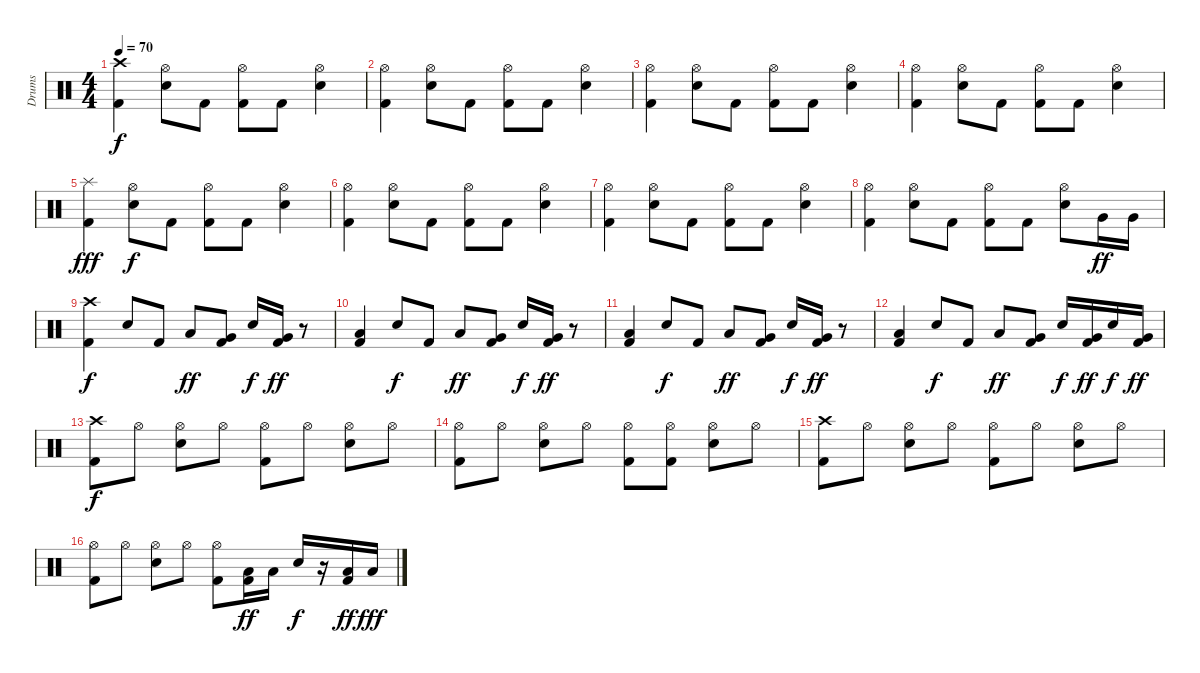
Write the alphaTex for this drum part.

\track ("Drums" "Drums") {instrument percussion}
\staff {score}
\articulation defaults
\ts (4 4)
\tempo 70
\clef neutral
\ks c
("Kick (hit) 2" "Crash high (hit)").4{dy f} ("Electric Snare (hit)" "Hi-Hat (open)").8 "Kick (hit) 2".8 ("Kick (hit) 2" "Hi-Hat (open)").8 "Kick (hit) 2".8 ("Electric Snare (hit)" "Hi-Hat (open)").4 |
("Kick (hit) 2" "Hi-Hat (open)").4 ("Electric Snare (hit)" "Hi-Hat (open)").8 "Kick (hit) 2".8 ("Kick (hit) 2" "Hi-Hat (open)").8 "Kick (hit) 2".8 ("Electric Snare (hit)" "Hi-Hat (open)").4 |
("Kick (hit) 2" "Hi-Hat (open)").4 ("Electric Snare (hit)" "Hi-Hat (open)").8 "Kick (hit) 2".8 ("Kick (hit) 2" "Hi-Hat (open)").8 "Kick (hit) 2".8 ("Electric Snare (hit)" "Hi-Hat (open)").4 |
("Kick (hit) 2" "Hi-Hat (open)").4 ("Electric Snare (hit)" "Hi-Hat (open)").8 "Kick (hit) 2".8 ("Kick (hit) 2" "Hi-Hat (open)").8 "Kick (hit) 2".8 ("Electric Snare (hit)" "Hi-Hat (open)").4 |
("Kick (hit) 2" "Splash (hit)").4{dy fff} ("Electric Snare (hit)" "Hi-Hat (open)").8{dy f} "Kick (hit) 2".8 ("Kick (hit) 2" "Hi-Hat (open)").8 "Kick (hit) 2".8 ("Electric Snare (hit)" "Hi-Hat (open)").4 |
("Kick (hit) 2" "Hi-Hat (open)").4 ("Electric Snare (hit)" "Hi-Hat (open)").8 "Kick (hit) 2".8 ("Kick (hit) 2" "Hi-Hat (open)").8 "Kick (hit) 2".8 ("Electric Snare (hit)" "Hi-Hat (open)").4 |
("Kick (hit) 2" "Hi-Hat (open)").4 ("Electric Snare (hit)" "Hi-Hat (open)").8 "Kick (hit) 2".8 ("Kick (hit) 2" "Hi-Hat (open)").8 "Kick (hit) 2".8 ("Electric Snare (hit)" "Hi-Hat (open)").4 |
("Kick (hit) 2" "Hi-Hat (open)").4 ("Electric Snare (hit)" "Hi-Hat (open)").8 "Kick (hit) 2".8 ("Kick (hit) 2" "Hi-Hat (open)").8 "Kick (hit) 2".8 ("Electric Snare (hit)" "Hi-Hat (open)").8 "Very Low Tom (hit)".16{dy ff} "Very Low Tom (hit)".16 |
("Kick (hit) 2" "Crash high (hit)").4{dy f} "Electric Snare (hit)".8 "Kick (hit) 2".8 "Low Tom (hit)".8{dy ff} ("Kick (hit) 2" "Very Low Tom (hit)").8 "Electric Snare (hit)".16{dy f} ("Kick (hit) 2" "Very Low Tom (hit)").16{dy ff} r.8 |
("Kick (hit) 2" "Low Tom (hit)").4 "Electric Snare (hit)".8{dy f} "Kick (hit) 2".8 "Low Tom (hit)".8{dy ff} ("Kick (hit) 2" "Very Low Tom (hit)").8 "Electric Snare (hit)".16{dy f} ("Kick (hit) 2" "Very Low Tom (hit)").16{dy ff} r.8 |
("Kick (hit) 2" "Low Tom (hit)").4 "Electric Snare (hit)".8{dy f} "Kick (hit) 2".8 "Low Tom (hit)".8{dy ff} ("Kick (hit) 2" "Very Low Tom (hit)").8 "Electric Snare (hit)".16{dy f} ("Kick (hit) 2" "Very Low Tom (hit)").16{dy ff} r.8 |
("Kick (hit) 2" "Low Tom (hit)").4 "Electric Snare (hit)".8{dy f} "Kick (hit) 2".8 "Low Tom (hit)".8{dy ff} ("Kick (hit) 2" "Very Low Tom (hit)").8 "Electric Snare (hit)".16{dy f} ("Kick (hit) 2" "Very Low Tom (hit)").16{dy ff} "Electric Snare (hit)".16{dy f} ("Kick (hit) 2" "Very Low Tom (hit)").16{dy ff} |
("Kick (hit) 2" "Crash high (hit)").8{dy f} "Hi-Hat (open)".8 ("Electric Snare (hit)" "Hi-Hat (open)").8 "Hi-Hat (open)".8 ("Kick (hit) 2" "Hi-Hat (open)").8 "Hi-Hat (open)".8 ("Electric Snare (hit)" "Hi-Hat (open)").8 "Hi-Hat (open)".8 |
("Kick (hit) 2" "Hi-Hat (open)").8 "Hi-Hat (open)".8 ("Electric Snare (hit)" "Hi-Hat (open)").8 "Hi-Hat (open)".8 ("Kick (hit) 2" "Hi-Hat (open)").8 ("Kick (hit) 2" "Hi-Hat (open)").8 ("Electric Snare (hit)" "Hi-Hat (open)").8 "Hi-Hat (open)".8 |
("Kick (hit) 2" "Crash high (hit)").8 "Hi-Hat (open)".8 ("Electric Snare (hit)" "Hi-Hat (open)").8 "Hi-Hat (open)".8 ("Kick (hit) 2" "Hi-Hat (open)").8 "Hi-Hat (open)".8 ("Electric Snare (hit)" "Hi-Hat (open)").8 "Hi-Hat (open)".8 |
("Kick (hit) 2" "Hi-Hat (open)").8 "Hi-Hat (open)".8 ("Electric Snare (hit)" "Hi-Hat (open)").8 "Hi-Hat (open)".8 ("Kick (hit) 2" "Hi-Hat (open)").8 ("Kick (hit) 2" "Low Tom (hit)").16{dy ff} "Low Tom (hit)".16 "Electric Snare (hit)".16{dy f} r.16 ("Kick (hit) 2" "Low Tom (hit)").16{dy ff} "Low Tom (hit)".16{dy fff}
